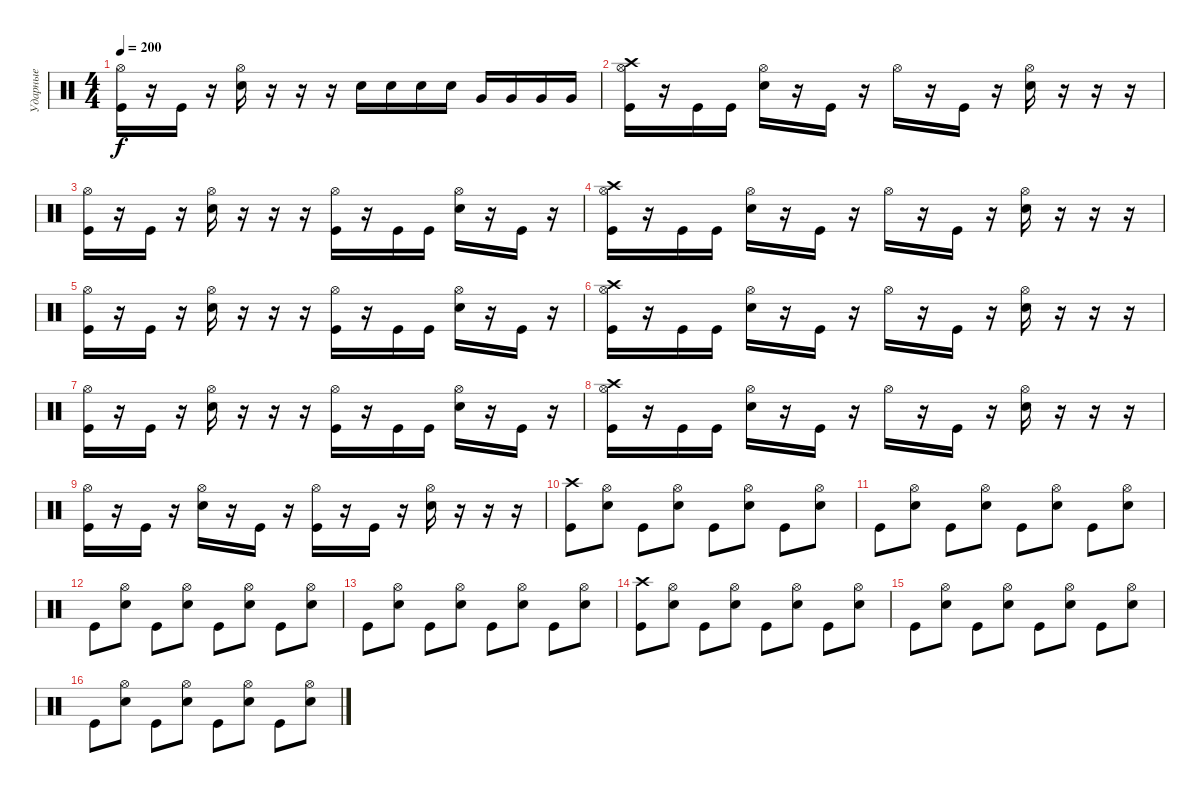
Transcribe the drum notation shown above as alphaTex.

\track ("Ударные" "Ударные") {instrument percussion}
\staff {score}
\articulation defaults
\ts (4 4)
\tempo 200
\clef neutral
\ks c
("Hi-Hat (open)" "Kick (hit)").16{dy f} r.16 "Kick (hit)".16 r.16 ("Hi-Hat (open)" "Electric Snare (hit)").16 r.16 r.16 r.16 "Electric Snare (hit)".16 "Electric Snare (hit)".16 "Electric Snare (hit)".16 "Electric Snare (hit)".16 "Very Low Tom (hit)".16 "Very Low Tom (hit)".16 "Very Low Tom (hit)".16 "Very Low Tom (hit)".16 |
("Hi-Hat (open)" "Crash high (hit)" "Kick (hit)").16 r.16 "Kick (hit)".16 "Kick (hit)".16 ("Hi-Hat (open)" "Electric Snare (hit)").16 r.16 "Kick (hit)".16 r.16 "Hi-Hat (open)".16 r.16 "Kick (hit)".16 r.16 ("Hi-Hat (open)" "Electric Snare (hit)").16 r.16 r.16 r.16 |
("Hi-Hat (open)" "Kick (hit)").16 r.16 "Kick (hit)".16 r.16 ("Hi-Hat (open)" "Electric Snare (hit)").16 r.16 r.16 r.16 ("Hi-Hat (open)" "Kick (hit)").16 r.16 "Kick (hit)".16 "Kick (hit)".16 ("Hi-Hat (open)" "Electric Snare (hit)").16 r.16 "Kick (hit)".16 r.16 |
("Hi-Hat (open)" "Crash high (hit)" "Kick (hit)").16 r.16 "Kick (hit)".16 "Kick (hit)".16 ("Hi-Hat (open)" "Electric Snare (hit)").16 r.16 "Kick (hit)".16 r.16 "Hi-Hat (open)".16 r.16 "Kick (hit)".16 r.16 ("Hi-Hat (open)" "Electric Snare (hit)").16 r.16 r.16 r.16 |
("Hi-Hat (open)" "Kick (hit)").16 r.16 "Kick (hit)".16 r.16 ("Hi-Hat (open)" "Electric Snare (hit)").16 r.16 r.16 r.16 ("Hi-Hat (open)" "Kick (hit)").16 r.16 "Kick (hit)".16 "Kick (hit)".16 ("Hi-Hat (open)" "Electric Snare (hit)").16 r.16 "Kick (hit)".16 r.16 |
("Hi-Hat (open)" "Crash high (hit)" "Kick (hit)").16 r.16 "Kick (hit)".16 "Kick (hit)".16 ("Hi-Hat (open)" "Electric Snare (hit)").16 r.16 "Kick (hit)".16 r.16 "Hi-Hat (open)".16 r.16 "Kick (hit)".16 r.16 ("Hi-Hat (open)" "Electric Snare (hit)").16 r.16 r.16 r.16 |
("Hi-Hat (open)" "Kick (hit)").16 r.16 "Kick (hit)".16 r.16 ("Hi-Hat (open)" "Electric Snare (hit)").16 r.16 r.16 r.16 ("Hi-Hat (open)" "Kick (hit)").16 r.16 "Kick (hit)".16 "Kick (hit)".16 ("Hi-Hat (open)" "Electric Snare (hit)").16 r.16 "Kick (hit)".16 r.16 |
("Hi-Hat (open)" "Crash high (hit)" "Kick (hit)").16 r.16 "Kick (hit)".16 "Kick (hit)".16 ("Hi-Hat (open)" "Electric Snare (hit)").16 r.16 "Kick (hit)".16 r.16 "Hi-Hat (open)".16 r.16 "Kick (hit)".16 r.16 ("Hi-Hat (open)" "Electric Snare (hit)").16 r.16 r.16 r.16 |
("Hi-Hat (open)" "Kick (hit)").16 r.16 "Kick (hit)".16 r.16 ("Hi-Hat (open)" "Electric Snare (hit)").16 r.16 "Kick (hit)".16 r.16 ("Hi-Hat (open)" "Kick (hit)").16 r.16 "Kick (hit)".16 r.16 ("Hi-Hat (open)" "Snare (hit) 2").16 r.16 r.16 r.16 |
("Crash high (hit)" "Kick (hit)").8 ("Hi-Hat (open)" "Electric Snare (hit)").8 "Kick (hit)".8 ("Hi-Hat (open)" "Electric Snare (hit)").8 "Kick (hit)".8 ("Hi-Hat (open)" "Electric Snare (hit)").8 "Kick (hit)".8 ("Hi-Hat (open)" "Electric Snare (hit)").8 |
"Kick (hit)".8 ("Hi-Hat (open)" "Electric Snare (hit)").8 "Kick (hit)".8 ("Hi-Hat (open)" "Electric Snare (hit)").8 "Kick (hit)".8 ("Hi-Hat (open)" "Electric Snare (hit)").8 "Kick (hit)".8 ("Hi-Hat (open)" "Electric Snare (hit)").8 |
"Kick (hit)".8 ("Hi-Hat (open)" "Electric Snare (hit)").8 "Kick (hit)".8 ("Hi-Hat (open)" "Electric Snare (hit)").8 "Kick (hit)".8 ("Hi-Hat (open)" "Electric Snare (hit)").8 "Kick (hit)".8 ("Hi-Hat (open)" "Electric Snare (hit)").8 |
"Kick (hit)".8 ("Hi-Hat (open)" "Electric Snare (hit)").8 "Kick (hit)".8 ("Hi-Hat (open)" "Electric Snare (hit)").8 "Kick (hit)".8 ("Hi-Hat (open)" "Electric Snare (hit)").8 "Kick (hit)".8 ("Hi-Hat (open)" "Electric Snare (hit)").8 |
("Crash high (hit)" "Kick (hit)").8 ("Hi-Hat (open)" "Electric Snare (hit)").8 "Kick (hit)".8 ("Hi-Hat (open)" "Electric Snare (hit)").8 "Kick (hit)".8 ("Hi-Hat (open)" "Electric Snare (hit)").8 "Kick (hit)".8 ("Hi-Hat (open)" "Electric Snare (hit)").8 |
"Kick (hit)".8 ("Hi-Hat (open)" "Electric Snare (hit)").8 "Kick (hit)".8 ("Hi-Hat (open)" "Electric Snare (hit)").8 "Kick (hit)".8 ("Hi-Hat (open)" "Electric Snare (hit)").8 "Kick (hit)".8 ("Hi-Hat (open)" "Electric Snare (hit)").8 |
"Kick (hit)".8 ("Hi-Hat (open)" "Electric Snare (hit)").8 "Kick (hit)".8 ("Hi-Hat (open)" "Electric Snare (hit)").8 "Kick (hit)".8 ("Hi-Hat (open)" "Electric Snare (hit)").8 "Kick (hit)".8 ("Hi-Hat (open)" "Electric Snare (hit)").8
